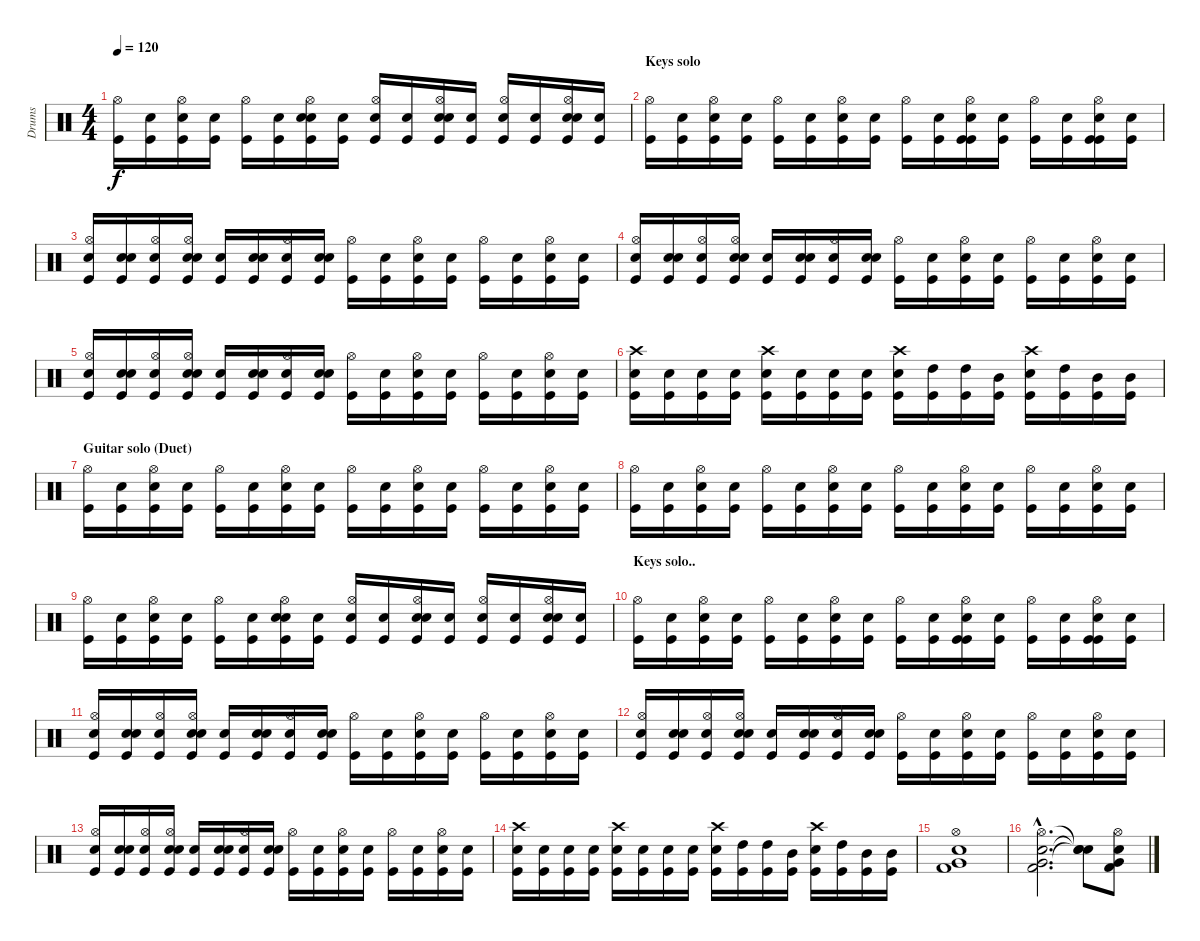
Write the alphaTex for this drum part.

\track ("Drums" "Drums") {instrument percussion}
\staff {score}
\articulation defaults
\ts (4 4)
\tempo 120
\clef neutral
\ks c
("Kick (hit)" "Hi-Hat (open)").16{dy f} ("Kick (hit)" "Snare (hit)").16 ("Kick (hit)" "Hi-Hat (open)" "Electric Snare (hit)").16 ("Kick (hit)" "Snare (hit)").16 ("Kick (hit)" "Hi-Hat (open)").16 ("Kick (hit)" "Snare (hit)").16 ("Kick (hit)" "Hi-Hat (open)" "Electric Snare (hit)" "Snare (hit)").16 ("Kick (hit)" "Snare (hit)").16 ("Kick (hit)" "Hi-Hat (open)" "Snare (hit)").16 ("Kick (hit)" "Snare (hit)").16 ("Kick (hit)" "Hi-Hat (open)" "Electric Snare (hit)" "Snare (hit)").16 ("Kick (hit)" "Snare (hit)").16 ("Kick (hit)" "Hi-Hat (open)" "Snare (hit)").16 ("Kick (hit)" "Snare (hit)").16 ("Kick (hit)" "Hi-Hat (open)" "Electric Snare (hit)" "Snare (hit)").16 ("Kick (hit)" "Snare (hit)").16 |
\section ("" "Keys solo")
("Kick (hit)" "Hi-Hat (open)").16 ("Kick (hit)" "Snare (hit)").16 ("Kick (hit)" "Hi-Hat (open)" "Electric Snare (hit)").16 ("Kick (hit)" "Snare (hit)").16 ("Kick (hit)" "Hi-Hat (open)").16 ("Kick (hit)" "Snare (hit)").16 ("Kick (hit)" "Hi-Hat (open)" "Electric Snare (hit)").16 ("Kick (hit)" "Snare (hit)").16 ("Kick (hit)" "Hi-Hat (open)").16 ("Kick (hit)" "Snare (hit)").16 ("Kick (hit)" "Hi-Hat (open)" "Electric Snare (hit)" "Kick (hit)").16 ("Kick (hit)" "Snare (hit)").16 ("Kick (hit)" "Hi-Hat (open)").16 ("Kick (hit)" "Snare (hit)").16 ("Kick (hit)" "Hi-Hat (open)" "Electric Snare (hit)" "Kick (hit)").16 ("Kick (hit)" "Snare (hit)").16 |
("Kick (hit)" "Hi-Hat (open)" "Electric Snare (hit)").16 ("Kick (hit)" "Electric Snare (hit)" "Snare (hit)").16 ("Kick (hit)" "Hi-Hat (open)" "Electric Snare (hit)").16 ("Kick (hit)" "Hi-Hat (open)" "Electric Snare (hit)" "Snare (hit)").16 ("Kick (hit)" "Electric Snare (hit)").16 ("Kick (hit)" "Electric Snare (hit)" "Snare (hit)").16 ("Kick (hit)" "Hi-Hat (open)" "Electric Snare (hit)").16 ("Kick (hit)" "Electric Snare (hit)" "Snare (hit)").16 ("Kick (hit)" "Hi-Hat (open)").16 ("Kick (hit)" "Snare (hit)").16 ("Kick (hit)" "Hi-Hat (open)" "Electric Snare (hit)").16 ("Kick (hit)" "Snare (hit)").16 ("Kick (hit)" "Hi-Hat (open)").16 ("Kick (hit)" "Snare (hit)").16 ("Kick (hit)" "Hi-Hat (open)" "Electric Snare (hit)").16 ("Kick (hit)" "Snare (hit)").16 |
("Kick (hit)" "Hi-Hat (open)" "Electric Snare (hit)").16 ("Kick (hit)" "Electric Snare (hit)" "Snare (hit)").16 ("Kick (hit)" "Hi-Hat (open)" "Electric Snare (hit)").16 ("Kick (hit)" "Hi-Hat (open)" "Electric Snare (hit)" "Snare (hit)").16 ("Kick (hit)" "Electric Snare (hit)").16 ("Kick (hit)" "Electric Snare (hit)" "Snare (hit)").16 ("Kick (hit)" "Hi-Hat (open)" "Electric Snare (hit)").16 ("Kick (hit)" "Electric Snare (hit)" "Snare (hit)").16 ("Kick (hit)" "Hi-Hat (open)").16 ("Kick (hit)" "Snare (hit)").16 ("Kick (hit)" "Hi-Hat (open)" "Electric Snare (hit)").16 ("Kick (hit)" "Snare (hit)").16 ("Kick (hit)" "Hi-Hat (open)").16 ("Kick (hit)" "Snare (hit)").16 ("Kick (hit)" "Hi-Hat (open)" "Electric Snare (hit)").16 ("Kick (hit)" "Snare (hit)").16 |
("Kick (hit)" "Hi-Hat (open)" "Electric Snare (hit)").16 ("Kick (hit)" "Electric Snare (hit)" "Snare (hit)").16 ("Kick (hit)" "Hi-Hat (open)" "Electric Snare (hit)").16 ("Kick (hit)" "Hi-Hat (open)" "Electric Snare (hit)" "Snare (hit)").16 ("Kick (hit)" "Electric Snare (hit)").16 ("Kick (hit)" "Electric Snare (hit)" "Snare (hit)").16 ("Kick (hit)" "Hi-Hat (open)" "Electric Snare (hit)").16 ("Kick (hit)" "Electric Snare (hit)" "Snare (hit)").16 ("Kick (hit)" "Hi-Hat (open)").16 ("Kick (hit)" "Snare (hit)").16 ("Kick (hit)" "Hi-Hat (open)" "Electric Snare (hit)").16 ("Kick (hit)" "Snare (hit)").16 ("Kick (hit)" "Hi-Hat (open)").16 ("Kick (hit)" "Snare (hit)").16 ("Kick (hit)" "Hi-Hat (open)" "Electric Snare (hit)").16 ("Kick (hit)" "Snare (hit)").16 |
("Kick (hit)" "Crash high (hit)" "Electric Snare (hit)").16 ("Kick (hit)" "Electric Snare (hit)").16 ("Kick (hit)" "Electric Snare (hit)").16 ("Kick (hit)" "Electric Snare (hit)").16 ("Kick (hit)" "Crash high (hit)" "Electric Snare (hit)").16 ("Kick (hit)" "Electric Snare (hit)").16 ("Kick (hit)" "Electric Snare (hit)").16 ("Kick (hit)" "Electric Snare (hit)").16 ("Kick (hit)" "Crash high (hit)" "Electric Snare (hit)").16 ("Kick (hit)" "High Tom (hit)").16 ("Kick (hit)" "High Tom (hit)").16 ("Kick (hit)" "Mid Tom (hit)").16 ("Kick (hit)" "Crash high (hit)" "Electric Snare (hit)").16 ("Kick (hit)" "High Tom (hit)").16 ("Kick (hit)" "Mid Tom (hit)").16 ("Kick (hit)" "Mid Tom (hit)").16 |
\section ("" "Guitar solo (Duet)")
("Kick (hit)" "Hi-Hat (open)").16 ("Kick (hit)" "Snare (hit)").16 ("Kick (hit)" "Hi-Hat (open)" "Electric Snare (hit)").16 ("Kick (hit)" "Snare (hit)").16 ("Kick (hit)" "Hi-Hat (open)").16 ("Kick (hit)" "Snare (hit)").16 ("Kick (hit)" "Hi-Hat (open)" "Electric Snare (hit)").16 ("Kick (hit)" "Snare (hit)").16 ("Kick (hit)" "Hi-Hat (open)").16 ("Kick (hit)" "Snare (hit)").16 ("Kick (hit)" "Hi-Hat (open)" "Electric Snare (hit)").16 ("Kick (hit)" "Snare (hit)").16 ("Kick (hit)" "Hi-Hat (open)").16 ("Kick (hit)" "Snare (hit)").16 ("Kick (hit)" "Hi-Hat (open)" "Electric Snare (hit)").16 ("Kick (hit)" "Snare (hit)").16 |
("Kick (hit)" "Hi-Hat (open)").16 ("Kick (hit)" "Snare (hit)").16 ("Kick (hit)" "Hi-Hat (open)" "Electric Snare (hit)").16 ("Kick (hit)" "Snare (hit)").16 ("Kick (hit)" "Hi-Hat (open)").16 ("Kick (hit)" "Snare (hit)").16 ("Kick (hit)" "Hi-Hat (open)" "Electric Snare (hit)").16 ("Kick (hit)" "Snare (hit)").16 ("Kick (hit)" "Hi-Hat (open)").16 ("Kick (hit)" "Snare (hit)").16 ("Kick (hit)" "Hi-Hat (open)" "Electric Snare (hit)").16 ("Kick (hit)" "Snare (hit)").16 ("Kick (hit)" "Hi-Hat (open)").16 ("Kick (hit)" "Snare (hit)").16 ("Kick (hit)" "Hi-Hat (open)" "Electric Snare (hit)").16 ("Kick (hit)" "Snare (hit)").16 |
("Kick (hit)" "Hi-Hat (open)").16 ("Kick (hit)" "Snare (hit)").16 ("Kick (hit)" "Hi-Hat (open)" "Electric Snare (hit)").16 ("Kick (hit)" "Snare (hit)").16 ("Kick (hit)" "Hi-Hat (open)").16 ("Kick (hit)" "Snare (hit)").16 ("Kick (hit)" "Hi-Hat (open)" "Electric Snare (hit)" "Snare (hit)").16 ("Kick (hit)" "Snare (hit)").16 ("Kick (hit)" "Hi-Hat (open)" "Snare (hit)").16 ("Kick (hit)" "Snare (hit)").16 ("Kick (hit)" "Hi-Hat (open)" "Electric Snare (hit)" "Snare (hit)").16 ("Kick (hit)" "Snare (hit)").16 ("Kick (hit)" "Hi-Hat (open)" "Snare (hit)").16 ("Kick (hit)" "Snare (hit)").16 ("Kick (hit)" "Hi-Hat (open)" "Electric Snare (hit)" "Snare (hit)").16 ("Kick (hit)" "Snare (hit)").16 |
\section ("" "Keys solo..")
("Kick (hit)" "Hi-Hat (open)").16 ("Kick (hit)" "Snare (hit)").16 ("Kick (hit)" "Hi-Hat (open)" "Electric Snare (hit)").16 ("Kick (hit)" "Snare (hit)").16 ("Kick (hit)" "Hi-Hat (open)").16 ("Kick (hit)" "Snare (hit)").16 ("Kick (hit)" "Hi-Hat (open)" "Electric Snare (hit)").16 ("Kick (hit)" "Snare (hit)").16 ("Kick (hit)" "Hi-Hat (open)").16 ("Kick (hit)" "Snare (hit)").16 ("Kick (hit)" "Hi-Hat (open)" "Electric Snare (hit)" "Kick (hit)").16 ("Kick (hit)" "Snare (hit)").16 ("Kick (hit)" "Hi-Hat (open)").16 ("Kick (hit)" "Snare (hit)").16 ("Kick (hit)" "Hi-Hat (open)" "Electric Snare (hit)" "Kick (hit)").16 ("Kick (hit)" "Snare (hit)").16 |
("Kick (hit)" "Hi-Hat (open)" "Electric Snare (hit)").16 ("Kick (hit)" "Electric Snare (hit)" "Snare (hit)").16 ("Kick (hit)" "Hi-Hat (open)" "Electric Snare (hit)").16 ("Kick (hit)" "Hi-Hat (open)" "Electric Snare (hit)" "Snare (hit)").16 ("Kick (hit)" "Electric Snare (hit)").16 ("Kick (hit)" "Electric Snare (hit)" "Snare (hit)").16 ("Kick (hit)" "Hi-Hat (open)" "Electric Snare (hit)").16 ("Kick (hit)" "Electric Snare (hit)" "Snare (hit)").16 ("Kick (hit)" "Hi-Hat (open)").16 ("Kick (hit)" "Snare (hit)").16 ("Kick (hit)" "Hi-Hat (open)" "Electric Snare (hit)").16 ("Kick (hit)" "Snare (hit)").16 ("Kick (hit)" "Hi-Hat (open)").16 ("Kick (hit)" "Snare (hit)").16 ("Kick (hit)" "Hi-Hat (open)" "Electric Snare (hit)").16 ("Kick (hit)" "Snare (hit)").16 |
("Kick (hit)" "Hi-Hat (open)" "Electric Snare (hit)").16 ("Kick (hit)" "Electric Snare (hit)" "Snare (hit)").16 ("Kick (hit)" "Hi-Hat (open)" "Electric Snare (hit)").16 ("Kick (hit)" "Hi-Hat (open)" "Electric Snare (hit)" "Snare (hit)").16 ("Kick (hit)" "Electric Snare (hit)").16 ("Kick (hit)" "Electric Snare (hit)" "Snare (hit)").16 ("Kick (hit)" "Hi-Hat (open)" "Electric Snare (hit)").16 ("Kick (hit)" "Electric Snare (hit)" "Snare (hit)").16 ("Kick (hit)" "Hi-Hat (open)").16 ("Kick (hit)" "Snare (hit)").16 ("Kick (hit)" "Hi-Hat (open)" "Electric Snare (hit)").16 ("Kick (hit)" "Snare (hit)").16 ("Kick (hit)" "Hi-Hat (open)").16 ("Kick (hit)" "Snare (hit)").16 ("Kick (hit)" "Hi-Hat (open)" "Electric Snare (hit)").16 ("Kick (hit)" "Snare (hit)").16 |
("Kick (hit)" "Hi-Hat (open)" "Electric Snare (hit)").16 ("Kick (hit)" "Electric Snare (hit)" "Snare (hit)").16 ("Kick (hit)" "Hi-Hat (open)" "Electric Snare (hit)").16 ("Kick (hit)" "Hi-Hat (open)" "Electric Snare (hit)" "Snare (hit)").16 ("Kick (hit)" "Electric Snare (hit)").16 ("Kick (hit)" "Electric Snare (hit)" "Snare (hit)").16 ("Kick (hit)" "Hi-Hat (open)" "Electric Snare (hit)").16 ("Kick (hit)" "Electric Snare (hit)" "Snare (hit)").16 ("Kick (hit)" "Hi-Hat (open)").16 ("Kick (hit)" "Snare (hit)").16 ("Kick (hit)" "Hi-Hat (open)" "Electric Snare (hit)").16 ("Kick (hit)" "Snare (hit)").16 ("Kick (hit)" "Hi-Hat (open)").16 ("Kick (hit)" "Snare (hit)").16 ("Kick (hit)" "Hi-Hat (open)" "Electric Snare (hit)").16 ("Kick (hit)" "Snare (hit)").16 |
("Kick (hit)" "Crash high (hit)" "Electric Snare (hit)").16 ("Kick (hit)" "Electric Snare (hit)").16 ("Kick (hit)" "Electric Snare (hit)").16 ("Kick (hit)" "Electric Snare (hit)").16 ("Kick (hit)" "Crash high (hit)" "Electric Snare (hit)").16 ("Kick (hit)" "Electric Snare (hit)").16 ("Kick (hit)" "Electric Snare (hit)").16 ("Kick (hit)" "Electric Snare (hit)").16 ("Kick (hit)" "Crash high (hit)" "Electric Snare (hit)").16 ("Kick (hit)" "High Tom (hit)").16 ("Kick (hit)" "High Tom (hit)").16 ("Kick (hit)" "Mid Tom (hit)").16 ("Kick (hit)" "Crash high (hit)" "Electric Snare (hit)").16 ("Kick (hit)" "High Tom (hit)").16 ("Kick (hit)" "Mid Tom (hit)").16 ("Kick (hit)" "Mid Tom (hit)").16 |
("Hi-Hat (open)" "Electric Snare (hit)" "Very Low Tom (hit)" "Kick (hit) 2").1 |
("Hi-Hat (open)" "Electric Snare (hit)"{hac} "Very Low Tom (hit)"{hac} "Kick (hit) 2"{hac}).2{d} ("Snare (hit)"{t} "Snare (hit)"{t} "Snare (hit)"{t}).8 ("Hi-Hat (open)" "Electric Snare (hit)" "Very Low Tom (hit)" "Kick (hit) 2").8
